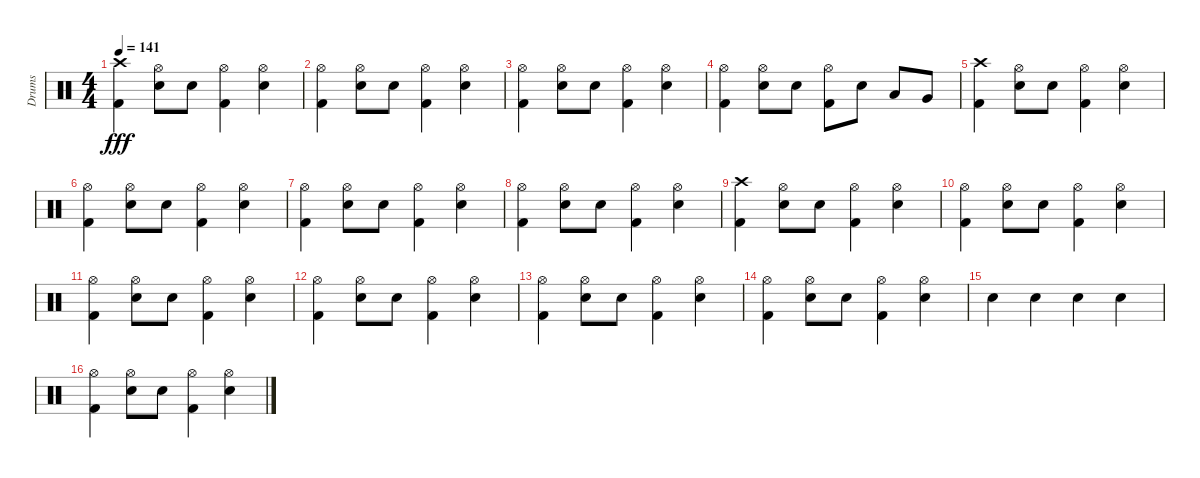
\track ("Drums" "Drums") {instrument percussion}
\staff {score}
\articulation defaults
\ts (4 4)
\tempo 141
\clef neutral
\ks c
("Crash high (hit)" "Kick (hit) 2").4{dy fff} ("Hi-Hat (open)" "Electric Snare (hit)").8 "Electric Snare (hit)".8 ("Hi-Hat (open)" "Kick (hit) 2").4 ("Hi-Hat (open)" "Electric Snare (hit)").4 |
("Hi-Hat (open)" "Kick (hit) 2").4 ("Hi-Hat (open)" "Electric Snare (hit)").8 "Electric Snare (hit)".8 ("Hi-Hat (open)" "Kick (hit) 2").4 ("Hi-Hat (open)" "Electric Snare (hit)").4 |
("Hi-Hat (open)" "Kick (hit) 2").4 ("Hi-Hat (open)" "Electric Snare (hit)").8 "Electric Snare (hit)".8 ("Hi-Hat (open)" "Kick (hit) 2").4 ("Hi-Hat (open)" "Electric Snare (hit)").4 |
("Hi-Hat (open)" "Kick (hit) 2").4 ("Hi-Hat (open)" "Electric Snare (hit)").8 "Electric Snare (hit)".8 ("Hi-Hat (open)" "Kick (hit) 2").8 "Electric Snare (hit)".8 "Low Tom (hit)".8 "Very Low Tom (hit)".8 |
("Crash high (hit)" "Kick (hit) 2").4 ("Hi-Hat (open)" "Electric Snare (hit)").8 "Electric Snare (hit)".8 ("Hi-Hat (open)" "Kick (hit) 2").4 ("Hi-Hat (open)" "Electric Snare (hit)").4 |
("Hi-Hat (open)" "Kick (hit) 2").4 ("Hi-Hat (open)" "Electric Snare (hit)").8 "Electric Snare (hit)".8 ("Hi-Hat (open)" "Kick (hit) 2").4 ("Hi-Hat (open)" "Electric Snare (hit)").4 |
("Hi-Hat (open)" "Kick (hit) 2").4 ("Hi-Hat (open)" "Electric Snare (hit)").8 "Electric Snare (hit)".8 ("Hi-Hat (open)" "Kick (hit) 2").4 ("Hi-Hat (open)" "Electric Snare (hit)").4 |
("Hi-Hat (open)" "Kick (hit) 2").4 ("Hi-Hat (open)" "Electric Snare (hit)").8 "Electric Snare (hit)".8 ("Hi-Hat (open)" "Kick (hit) 2").4 ("Hi-Hat (open)" "Electric Snare (hit)").4 |
("Crash high (hit)" "Kick (hit) 2").4 ("Hi-Hat (open)" "Electric Snare (hit)").8 "Electric Snare (hit)".8 ("Hi-Hat (open)" "Kick (hit) 2").4 ("Hi-Hat (open)" "Electric Snare (hit)").4 |
("Hi-Hat (open)" "Kick (hit) 2").4 ("Hi-Hat (open)" "Electric Snare (hit)").8 "Electric Snare (hit)".8 ("Hi-Hat (open)" "Kick (hit) 2").4 ("Hi-Hat (open)" "Electric Snare (hit)").4 |
("Hi-Hat (open)" "Kick (hit) 2").4 ("Hi-Hat (open)" "Electric Snare (hit)").8 "Electric Snare (hit)".8 ("Hi-Hat (open)" "Kick (hit) 2").4 ("Hi-Hat (open)" "Electric Snare (hit)").4 |
("Hi-Hat (open)" "Kick (hit) 2").4 ("Hi-Hat (open)" "Electric Snare (hit)").8 "Electric Snare (hit)".8 ("Hi-Hat (open)" "Kick (hit) 2").4 ("Hi-Hat (open)" "Electric Snare (hit)").4 |
("Hi-Hat (open)" "Kick (hit) 2").4 ("Hi-Hat (open)" "Electric Snare (hit)").8 "Electric Snare (hit)".8 ("Hi-Hat (open)" "Kick (hit) 2").4 ("Hi-Hat (open)" "Electric Snare (hit)").4 |
("Hi-Hat (open)" "Kick (hit) 2").4 ("Hi-Hat (open)" "Electric Snare (hit)").8 "Electric Snare (hit)".8 ("Hi-Hat (open)" "Kick (hit) 2").4 ("Hi-Hat (open)" "Electric Snare (hit)").4 |
"Electric Snare (hit)".4 "Electric Snare (hit)".4 "Electric Snare (hit)".4 "Electric Snare (hit)".4 |
("Hi-Hat (open)" "Kick (hit) 2").4 ("Hi-Hat (open)" "Electric Snare (hit)").8 "Electric Snare (hit)".8 ("Hi-Hat (open)" "Kick (hit) 2").4 ("Hi-Hat (open)" "Electric Snare (hit)").4
